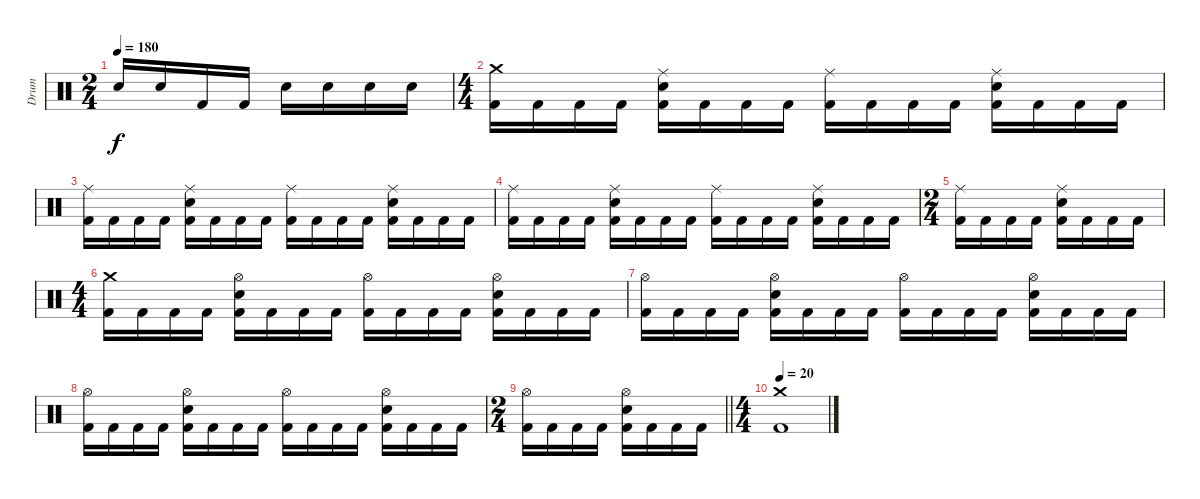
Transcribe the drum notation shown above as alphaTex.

\track ("Drum" "Drum") {instrument percussion}
\staff {score}
\articulation defaults
\ts (2 4)
\tempo 180
\clef neutral
\ks c "Electric Snare (hit)".16{dy f} "Electric Snare (hit)".16 "Kick (hit) 2".16 "Kick (hit) 2".16 "Electric Snare (hit)".16 "Electric Snare (hit)".16 "Electric Snare (hit)".16 "Electric Snare (hit)".16
|
\ts (4 4)
("Crash medium (hit)" "Kick (hit) 2").16 "Kick (hit) 2".16 "Kick (hit) 2".16 "Kick (hit) 2".16 ("Ride (middle)" "Electric Snare (hit)" "Kick (hit) 2").16 "Kick (hit) 2".16 "Kick (hit) 2".16 "Kick (hit) 2".16 ("Ride (middle)" "Kick (hit) 2").16 "Kick (hit) 2".16 "Kick (hit) 2".16 "Kick (hit) 2".16 ("Ride (middle)" "Electric Snare (hit)" "Kick (hit) 2").16 "Kick (hit) 2".16 "Kick (hit) 2".16 "Kick (hit) 2".16 |
("Ride (middle)" "Kick (hit) 2").16 "Kick (hit) 2".16 "Kick (hit) 2".16 "Kick (hit) 2".16 ("Ride (middle)" "Electric Snare (hit)" "Kick (hit) 2").16 "Kick (hit) 2".16 "Kick (hit) 2".16 "Kick (hit) 2".16 ("Ride (middle)" "Kick (hit) 2").16 "Kick (hit) 2".16 "Kick (hit) 2".16 "Kick (hit) 2".16 ("Ride (middle)" "Electric Snare (hit)" "Kick (hit) 2").16 "Kick (hit) 2".16 "Kick (hit) 2".16 "Kick (hit) 2".16 |
("Ride (middle)" "Kick (hit) 2").16 "Kick (hit) 2".16 "Kick (hit) 2".16 "Kick (hit) 2".16 ("Ride (middle)" "Electric Snare (hit)" "Kick (hit) 2").16 "Kick (hit) 2".16 "Kick (hit) 2".16 "Kick (hit) 2".16 ("Ride (middle)" "Kick (hit) 2").16 "Kick (hit) 2".16 "Kick (hit) 2".16 "Kick (hit) 2".16 ("Ride (middle)" "Electric Snare (hit)" "Kick (hit) 2").16 "Kick (hit) 2".16 "Kick (hit) 2".16 "Kick (hit) 2".16 |
\ts (2 4)
("Ride (middle)" "Kick (hit) 2").16 "Kick (hit) 2".16 "Kick (hit) 2".16 "Kick (hit) 2".16 ("Ride (middle)" "Electric Snare (hit)" "Kick (hit) 2").16 "Kick (hit) 2".16 "Kick (hit) 2".16 "Kick (hit) 2".16 |
\ts (4 4)
("Crash medium (hit)" "Kick (hit) 2").16 "Kick (hit) 2".16 "Kick (hit) 2".16 "Kick (hit) 2".16 ("Hi-Hat (open)" "Electric Snare (hit)" "Kick (hit) 2").16 "Kick (hit) 2".16 "Kick (hit) 2".16 "Kick (hit) 2".16 ("Hi-Hat (open)" "Kick (hit) 2").16 "Kick (hit) 2".16 "Kick (hit) 2".16 "Kick (hit) 2".16 ("Hi-Hat (open)" "Electric Snare (hit)" "Kick (hit) 2").16 "Kick (hit) 2".16 "Kick (hit) 2".16 "Kick (hit) 2".16 |
("Hi-Hat (open)" "Kick (hit) 2").16 "Kick (hit) 2".16 "Kick (hit) 2".16 "Kick (hit) 2".16 ("Hi-Hat (open)" "Electric Snare (hit)" "Kick (hit) 2").16 "Kick (hit) 2".16 "Kick (hit) 2".16 "Kick (hit) 2".16 ("Hi-Hat (open)" "Kick (hit) 2").16 "Kick (hit) 2".16 "Kick (hit) 2".16 "Kick (hit) 2".16 ("Hi-Hat (open)" "Electric Snare (hit)" "Kick (hit) 2").16 "Kick (hit) 2".16 "Kick (hit) 2".16 "Kick (hit) 2".16 |
("Hi-Hat (open)" "Kick (hit) 2").16 "Kick (hit) 2".16 "Kick (hit) 2".16 "Kick (hit) 2".16 ("Hi-Hat (open)" "Electric Snare (hit)" "Kick (hit) 2").16 "Kick (hit) 2".16 "Kick (hit) 2".16 "Kick (hit) 2".16 ("Hi-Hat (open)" "Kick (hit) 2").16 "Kick (hit) 2".16 "Kick (hit) 2".16 "Kick (hit) 2".16 ("Hi-Hat (open)" "Electric Snare (hit)" "Kick (hit) 2").16 "Kick (hit) 2".16 "Kick (hit) 2".16 "Kick (hit) 2".16 |
\ts (2 4)
\barLineRight lightlight
("Hi-Hat (open)" "Kick (hit) 2").16 "Kick (hit) 2".16 "Kick (hit) 2".16 "Kick (hit) 2".16 ("Hi-Hat (open)" "Electric Snare (hit)" "Kick (hit) 2").16 "Kick (hit) 2".16 "Kick (hit) 2".16 "Kick (hit) 2".16 |
\ts (4 4)
\tempo 20
("Crash medium (hit)" "Kick (hit) 2").1
